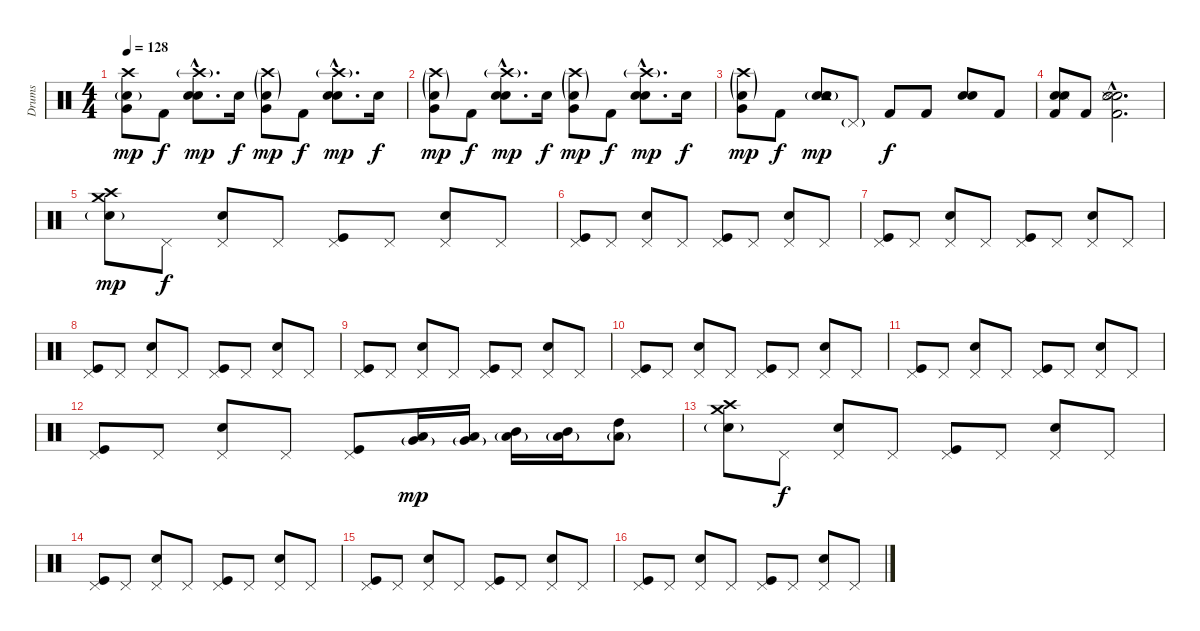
\track ("Drums" "Drums") {instrument percussion}
\staff {score}
\articulation defaults
\ts (4 4)
\tempo 128
\clef neutral
\ks c
("Very Low Tom (hit)" "Electric Snare (hit)"{g} "Crash high (hit)").8{dy mp} "Kick (hit) 2".8{dy f} ("Electric Snare (hit)"{hac} "Electric Snare (hit)"{hac} "Crash high (hit)"{g hac}).8{d dy mp} "Electric Snare (hit)".16{dy f} ("Very Low Tom (hit)" "Electric Snare (hit)"{g} "Crash high (hit)"{g}).8{dy mp} "Kick (hit) 2".8{dy f} ("Electric Snare (hit)"{hac} "Electric Snare (hit)"{hac} "Crash high (hit)"{g hac}).8{d dy mp} "Electric Snare (hit)".16{dy f} |
("Very Low Tom (hit)" "Electric Snare (hit)"{g} "Crash high (hit)"{g}).8{dy mp} "Kick (hit) 2".8{dy f} ("Electric Snare (hit)"{hac} "Electric Snare (hit)"{hac} "Crash high (hit)"{g hac}).8{d dy mp} "Electric Snare (hit)".16{dy f} ("Very Low Tom (hit)" "Electric Snare (hit)"{g} "Crash high (hit)"{g}).8{dy mp} "Kick (hit) 2".8{dy f} ("Electric Snare (hit)"{hac} "Electric Snare (hit)"{hac} "Crash high (hit)"{g hac}).8{d dy mp} "Electric Snare (hit)".16{dy f} |
("Very Low Tom (hit)" "Electric Snare (hit)"{g} "Crash high (hit)"{g}).8{dy mp} "Kick (hit) 2".8{dy f} ("Electric Snare (hit)" "Electric Snare (hit)" "Tambourine (hit)"{g}).8{dy mp} "Pedal Hi-Hat (hit)"{g}.8 "Kick (hit) 2".8{dy f} "Kick (hit) 2".8 ("Electric Snare (hit)" "Electric Snare (hit)").8 "Kick (hit) 2".8 |
("Electric Snare (hit)" "Electric Snare (hit)" "Kick (hit) 2" "Snare (side stick) 3").8 "Kick (hit) 2".8 ("Electric Snare (hit)"{hac} "Electric Snare (hit)"{hac} "Kick (hit) 2"{hac} "Snare (side stick) 3"{hac}).2{d} |
("Crash high (hit)" "Crash medium (hit)" "Electric Snare (hit)"{g}).8{dy mp} "Pedal Hi-Hat (hit)".8{dy f} ("Pedal Hi-Hat (hit)" "Electric Snare (hit)").8 "Pedal Hi-Hat (hit)".8 ("Pedal Hi-Hat (hit)" "Kick (hit)").8 "Pedal Hi-Hat (hit)".8 ("Pedal Hi-Hat (hit)" "Electric Snare (hit)").8 "Pedal Hi-Hat (hit)".8 |
("Pedal Hi-Hat (hit)" "Kick (hit)").8 "Pedal Hi-Hat (hit)".8 ("Pedal Hi-Hat (hit)" "Electric Snare (hit)").8 "Pedal Hi-Hat (hit)".8 ("Pedal Hi-Hat (hit)" "Kick (hit)").8 "Pedal Hi-Hat (hit)".8 ("Pedal Hi-Hat (hit)" "Electric Snare (hit)").8 "Pedal Hi-Hat (hit)".8 |
("Pedal Hi-Hat (hit)" "Kick (hit)").8 "Pedal Hi-Hat (hit)".8 ("Pedal Hi-Hat (hit)" "Electric Snare (hit)").8 "Pedal Hi-Hat (hit)".8 ("Pedal Hi-Hat (hit)" "Kick (hit)").8 "Pedal Hi-Hat (hit)".8 ("Pedal Hi-Hat (hit)" "Electric Snare (hit)").8 "Pedal Hi-Hat (hit)".8 |
("Pedal Hi-Hat (hit)" "Kick (hit)").8 "Pedal Hi-Hat (hit)".8 ("Pedal Hi-Hat (hit)" "Electric Snare (hit)").8 "Pedal Hi-Hat (hit)".8 ("Pedal Hi-Hat (hit)" "Kick (hit)").8 "Pedal Hi-Hat (hit)".8 ("Pedal Hi-Hat (hit)" "Electric Snare (hit)").8 "Pedal Hi-Hat (hit)".8 |
("Pedal Hi-Hat (hit)" "Kick (hit)").8 "Pedal Hi-Hat (hit)".8 ("Pedal Hi-Hat (hit)" "Electric Snare (hit)").8 "Pedal Hi-Hat (hit)".8 ("Pedal Hi-Hat (hit)" "Kick (hit)").8 "Pedal Hi-Hat (hit)".8 ("Pedal Hi-Hat (hit)" "Electric Snare (hit)").8 "Pedal Hi-Hat (hit)".8 |
("Pedal Hi-Hat (hit)" "Kick (hit)").8 "Pedal Hi-Hat (hit)".8 ("Pedal Hi-Hat (hit)" "Electric Snare (hit)").8 "Pedal Hi-Hat (hit)".8 ("Pedal Hi-Hat (hit)" "Kick (hit)").8 "Pedal Hi-Hat (hit)".8 ("Pedal Hi-Hat (hit)" "Electric Snare (hit)").8 "Pedal Hi-Hat (hit)".8 |
("Pedal Hi-Hat (hit)" "Kick (hit)").8 "Pedal Hi-Hat (hit)".8 ("Pedal Hi-Hat (hit)" "Electric Snare (hit)").8 "Pedal Hi-Hat (hit)".8 ("Pedal Hi-Hat (hit)" "Kick (hit)").8 "Pedal Hi-Hat (hit)".8 ("Pedal Hi-Hat (hit)" "Electric Snare (hit)").8 "Pedal Hi-Hat (hit)".8 |
("Pedal Hi-Hat (hit)" "Kick (hit)").8 "Pedal Hi-Hat (hit)".8 ("Pedal Hi-Hat (hit)" "Electric Snare (hit)").8 "Pedal Hi-Hat (hit)".8 ("Pedal Hi-Hat (hit)" "Kick (hit)").8 ("Low Tom (hit)" "Very Low Tom (hit)"{g}).16{dy mp} ("Low Tom (hit)" "Very Low Tom (hit)"{g}).16 ("Mid Tom (hit)" "Low Tom (hit)"{g}).16 ("Mid Tom (hit)" "Low Tom (hit)"{g}).16 ("High Tom (hit)" "Low Floor Tom (hit)"{g}).8 |
("Crash high (hit)" "Crash medium (hit)" "Electric Snare (hit)"{g}).8 "Pedal Hi-Hat (hit)".8{dy f} ("Pedal Hi-Hat (hit)" "Electric Snare (hit)").8 "Pedal Hi-Hat (hit)".8 ("Pedal Hi-Hat (hit)" "Kick (hit)").8 "Pedal Hi-Hat (hit)".8 ("Pedal Hi-Hat (hit)" "Electric Snare (hit)").8 "Pedal Hi-Hat (hit)".8 |
("Pedal Hi-Hat (hit)" "Kick (hit)").8 "Pedal Hi-Hat (hit)".8 ("Pedal Hi-Hat (hit)" "Electric Snare (hit)").8 "Pedal Hi-Hat (hit)".8 ("Pedal Hi-Hat (hit)" "Kick (hit)").8 "Pedal Hi-Hat (hit)".8 ("Pedal Hi-Hat (hit)" "Electric Snare (hit)").8 "Pedal Hi-Hat (hit)".8 |
("Pedal Hi-Hat (hit)" "Kick (hit)").8 "Pedal Hi-Hat (hit)".8 ("Pedal Hi-Hat (hit)" "Electric Snare (hit)").8 "Pedal Hi-Hat (hit)".8 ("Pedal Hi-Hat (hit)" "Kick (hit)").8 "Pedal Hi-Hat (hit)".8 ("Pedal Hi-Hat (hit)" "Electric Snare (hit)").8 "Pedal Hi-Hat (hit)".8 |
("Pedal Hi-Hat (hit)" "Kick (hit)").8 "Pedal Hi-Hat (hit)".8 ("Pedal Hi-Hat (hit)" "Electric Snare (hit)").8 "Pedal Hi-Hat (hit)".8 ("Pedal Hi-Hat (hit)" "Kick (hit)").8 "Pedal Hi-Hat (hit)".8 ("Pedal Hi-Hat (hit)" "Electric Snare (hit)").8 "Pedal Hi-Hat (hit)".8
